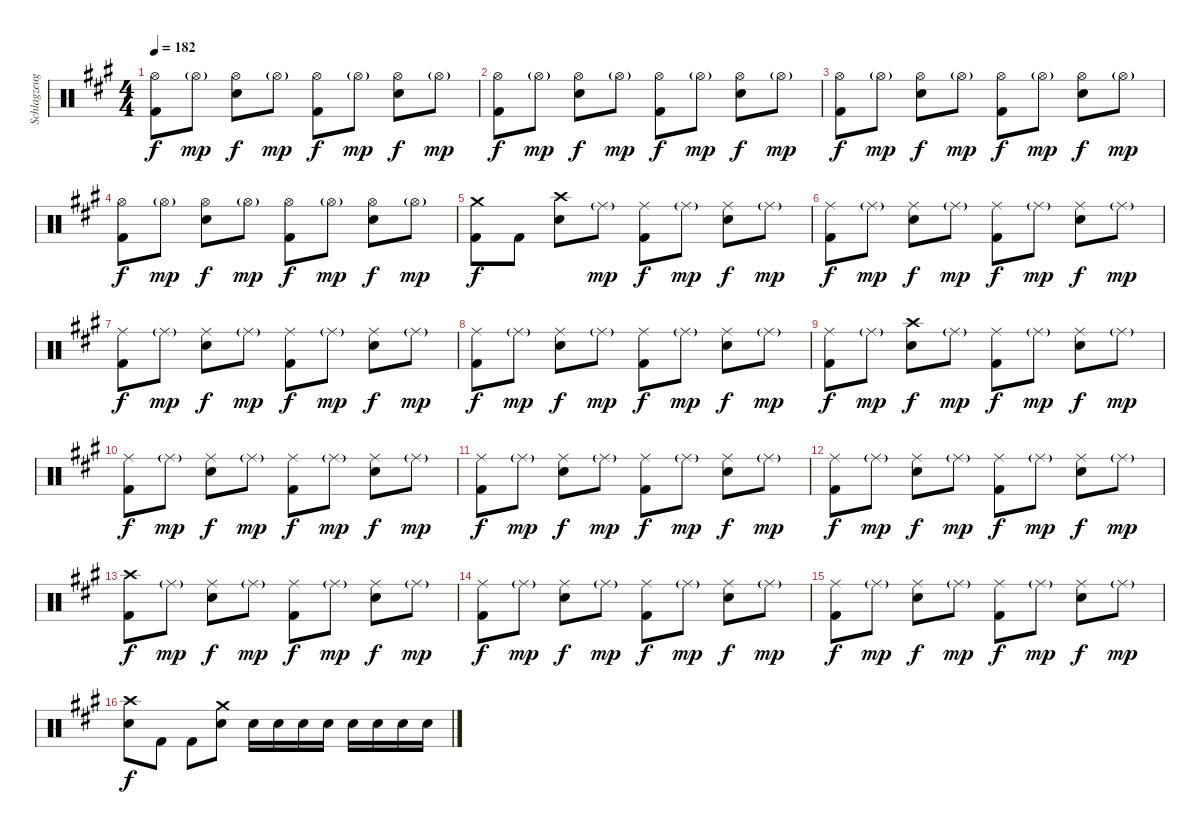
\track ("Schlagzeug" "Schlagzeug") {instrument percussion}
\staff {score}
\articulation defaults
\ts (4 4)
\tempo 182
\clef neutral
\ks a
("Hi-Hat (open)" "Kick (hit) 2").8{dy f} "Hi-Hat (open)"{g}.8{dy mp} ("Hi-Hat (open)" "Snare (hit) 2").8{dy f} "Hi-Hat (open)"{g}.8{dy mp} ("Hi-Hat (open)" "Kick (hit) 2").8{dy f} "Hi-Hat (open)"{g}.8{dy mp} ("Hi-Hat (open)" "Snare (hit) 2").8{dy f} "Hi-Hat (open)"{g}.8{dy mp} |
("Hi-Hat (open)" "Kick (hit) 2").8{dy f} "Hi-Hat (open)"{g}.8{dy mp} ("Hi-Hat (open)" "Snare (hit) 2").8{dy f} "Hi-Hat (open)"{g}.8{dy mp} ("Hi-Hat (open)" "Kick (hit) 2").8{dy f} "Hi-Hat (open)"{g}.8{dy mp} ("Hi-Hat (open)" "Snare (hit) 2").8{dy f} "Hi-Hat (open)"{g}.8{dy mp} |
("Hi-Hat (open)" "Kick (hit) 2").8{dy f} "Hi-Hat (open)"{g}.8{dy mp} ("Hi-Hat (open)" "Snare (hit) 2").8{dy f} "Hi-Hat (open)"{g}.8{dy mp} ("Hi-Hat (open)" "Kick (hit) 2").8{dy f} "Hi-Hat (open)"{g}.8{dy mp} ("Hi-Hat (open)" "Snare (hit) 2").8{dy f} "Hi-Hat (open)"{g}.8{dy mp} |
("Hi-Hat (open)" "Kick (hit) 2").8{dy f} "Hi-Hat (open)"{g}.8{dy mp} ("Hi-Hat (open)" "Snare (hit) 2").8{dy f} "Hi-Hat (open)"{g}.8{dy mp} ("Hi-Hat (open)" "Kick (hit) 2").8{dy f} "Hi-Hat (open)"{g}.8{dy mp} ("Hi-Hat (open)" "Snare (hit) 2").8{dy f} "Hi-Hat (open)"{g}.8{dy mp} |
("Crash medium (hit)" "Kick (hit) 2").8{dy f} "Kick (hit) 2".8 ("Crash high (hit)" "Snare (hit) 2").8 "Ride (middle)"{g}.8{dy mp} ("Ride (middle)" "Kick (hit) 2").8{dy f} "Ride (middle)"{g}.8{dy mp} ("Ride (middle)" "Snare (hit) 2").8{dy f} "Ride (middle)"{g}.8{dy mp} |
("Ride (middle)" "Kick (hit) 2").8{dy f} "Ride (middle)"{g}.8{dy mp} ("Ride (middle)" "Snare (hit) 2").8{dy f} "Ride (middle)"{g}.8{dy mp} ("Ride (middle)" "Kick (hit) 2").8{dy f} "Ride (middle)"{g}.8{dy mp} ("Ride (middle)" "Snare (hit) 2").8{dy f} "Ride (middle)"{g}.8{dy mp} |
("Ride (middle)" "Kick (hit) 2").8{dy f} "Ride (middle)"{g}.8{dy mp} ("Ride (middle)" "Snare (hit) 2").8{dy f} "Ride (middle)"{g}.8{dy mp} ("Ride (middle)" "Kick (hit) 2").8{dy f} "Ride (middle)"{g}.8{dy mp} ("Ride (middle)" "Snare (hit) 2").8{dy f} "Ride (middle)"{g}.8{dy mp} |
("Ride (middle)" "Kick (hit) 2").8{dy f} "Ride (middle)"{g}.8{dy mp} ("Ride (middle)" "Snare (hit) 2").8{dy f} "Ride (middle)"{g}.8{dy mp} ("Ride (middle)" "Kick (hit) 2").8{dy f} "Ride (middle)"{g}.8{dy mp} ("Ride (middle)" "Snare (hit) 2").8{dy f} "Ride (middle)"{g}.8{dy mp} |
("Ride (middle)" "Kick (hit) 2").8{dy f} "Ride (middle)"{g}.8{dy mp} ("Crash high (hit)" "Snare (hit) 2").8{dy f} "Ride (middle)"{g}.8{dy mp} ("Ride (middle)" "Kick (hit) 2").8{dy f} "Ride (middle)"{g}.8{dy mp} ("Ride (middle)" "Snare (hit) 2").8{dy f} "Ride (middle)"{g}.8{dy mp} |
("Ride (middle)" "Kick (hit) 2").8{dy f} "Ride (middle)"{g}.8{dy mp} ("Ride (middle)" "Snare (hit) 2").8{dy f} "Ride (middle)"{g}.8{dy mp} ("Ride (middle)" "Kick (hit) 2").8{dy f} "Ride (middle)"{g}.8{dy mp} ("Ride (middle)" "Snare (hit) 2").8{dy f} "Ride (middle)"{g}.8{dy mp} |
("Ride (middle)" "Kick (hit) 2").8{dy f} "Ride (middle)"{g}.8{dy mp} ("Ride (middle)" "Snare (hit) 2").8{dy f} "Ride (middle)"{g}.8{dy mp} ("Ride (middle)" "Kick (hit) 2").8{dy f} "Ride (middle)"{g}.8{dy mp} ("Ride (middle)" "Snare (hit) 2").8{dy f} "Ride (middle)"{g}.8{dy mp} |
("Ride (middle)" "Kick (hit) 2").8{dy f} "Ride (middle)"{g}.8{dy mp} ("Ride (middle)" "Snare (hit) 2").8{dy f} "Ride (middle)"{g}.8{dy mp} ("Ride (middle)" "Kick (hit) 2").8{dy f} "Ride (middle)"{g}.8{dy mp} ("Ride (middle)" "Snare (hit) 2").8{dy f} "Ride (middle)"{g}.8{dy mp} |
("Crash high (hit)" "Kick (hit) 2").8{dy f} "Ride (middle)"{g}.8{dy mp} ("Ride (middle)" "Snare (hit) 2").8{dy f} "Ride (middle)"{g}.8{dy mp} ("Ride (middle)" "Kick (hit) 2").8{dy f} "Ride (middle)"{g}.8{dy mp} ("Ride (middle)" "Snare (hit) 2").8{dy f} "Ride (middle)"{g}.8{dy mp} |
("Ride (middle)" "Kick (hit) 2").8{dy f} "Ride (middle)"{g}.8{dy mp} ("Ride (middle)" "Snare (hit) 2").8{dy f} "Ride (middle)"{g}.8{dy mp} ("Ride (middle)" "Kick (hit) 2").8{dy f} "Ride (middle)"{g}.8{dy mp} ("Ride (middle)" "Snare (hit) 2").8{dy f} "Ride (middle)"{g}.8{dy mp} |
("Ride (middle)" "Kick (hit) 2").8{dy f} "Ride (middle)"{g}.8{dy mp} ("Ride (middle)" "Snare (hit) 2").8{dy f} "Ride (middle)"{g}.8{dy mp} ("Ride (middle)" "Kick (hit) 2").8{dy f} "Ride (middle)"{g}.8{dy mp} ("Ride (middle)" "Snare (hit) 2").8{dy f} "Ride (middle)"{g}.8{dy mp} |
("Crash high (hit)" "Snare (hit) 2").8{dy f} "Kick (hit) 2".8 "Kick (hit) 2".8 ("Crash medium (hit)" "Snare (hit) 2").8 "Snare (hit) 2".16 "Snare (hit) 2".16 "Snare (hit) 2".16 "Snare (hit) 2".16 "Snare (hit) 2".16 "Snare (hit) 2".16 "Snare (hit) 2".16 "Snare (hit) 2".16
